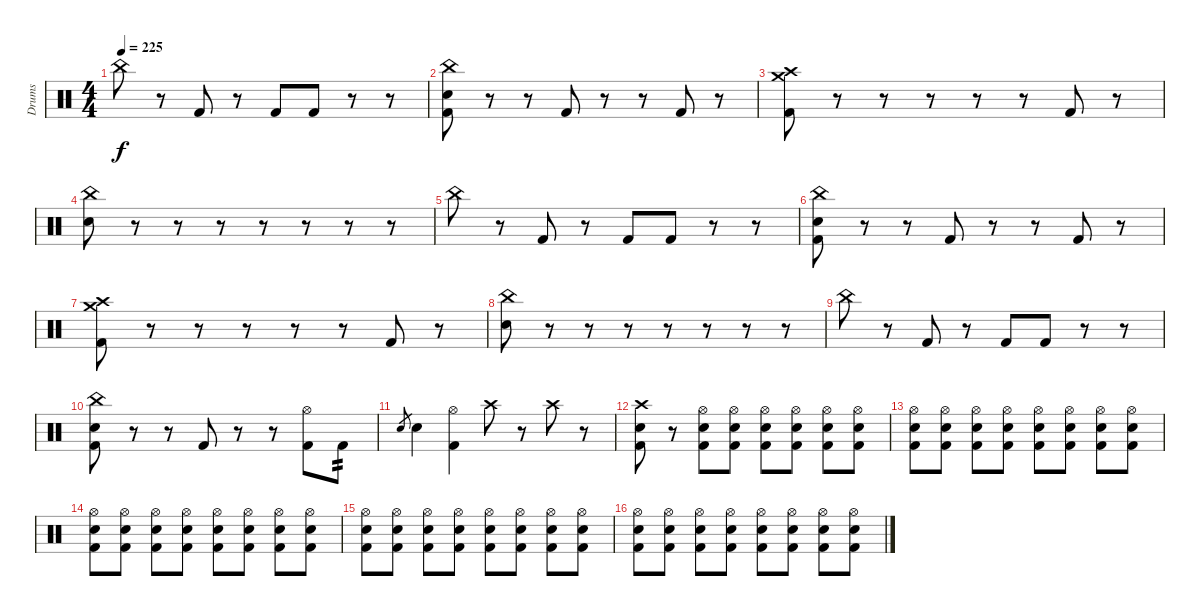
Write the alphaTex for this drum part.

\track ("Drums" "Drums") {instrument percussion}
\staff {score}
\articulation defaults
\ts (4 4)
\tempo 225
\clef neutral
\ks c "China (hit)".8{dy f}
r.8 "Kick (hit) 2".8 r.8 "Kick (hit) 2".8 "Kick (hit) 2".8 r.8 r.8 |
("China (hit)" "Electric Snare (hit)" "Kick (hit) 2").8 r.8 r.8 "Kick (hit) 2".8 r.8 r.8 "Kick (hit) 2".8 r.8 |
("Crash medium (hit)" "Crash high (hit)" "Kick (hit) 2").8 r.8 r.8 r.8 r.8 r.8 "Kick (hit) 2".8 r.8 |
("China (hit)" "Electric Snare (hit)").8 r.8 r.8 r.8 r.8 r.8 r.8 r.8 |
"China (hit)".8 r.8 "Kick (hit) 2".8 r.8 "Kick (hit) 2".8 "Kick (hit) 2".8 r.8 r.8 |
("China (hit)" "Electric Snare (hit)" "Kick (hit) 2").8 r.8 r.8 "Kick (hit) 2".8 r.8 r.8 "Kick (hit) 2".8 r.8 |
("Crash medium (hit)" "Crash high (hit)" "Kick (hit) 2").8 r.8 r.8 r.8 r.8 r.8 "Kick (hit) 2".8 r.8 |
("China (hit)" "Electric Snare (hit)").8 r.8 r.8 r.8 r.8 r.8 r.8 r.8 |
"China (hit)".8 r.8 "Kick (hit) 2".8 r.8 "Kick (hit) 2".8 "Kick (hit) 2".8 r.8 r.8 |
("China (hit)" "Electric Snare (hit)" "Kick (hit) 2").8 r.8 r.8 "Kick (hit) 2".8 r.8 r.8 ("Hi-Hat (open)" "Kick (hit) 2").8 "Kick (hit) 2".8{tp 2} |
"Electric Snare (hit)".8{gr} "Electric Snare (hit)".4 ("Hi-Hat (open)" "Kick (hit) 2").4 "Crash high (hit)".8 r.8{volume 0} "Crash high (hit)".8{volume 13} r.8{volume 0} |
("Crash high (hit)" "Electric Snare (hit)" "Kick (hit) 2").8{volume 13} r.8 ("Hi-Hat (open)" "Electric Snare (hit)" "Kick (hit) 2").8 ("Hi-Hat (open)" "Electric Snare (hit)" "Kick (hit) 2").8 ("Hi-Hat (open)" "Electric Snare (hit)" "Kick (hit) 2").8 ("Hi-Hat (open)" "Electric Snare (hit)" "Kick (hit) 2").8 ("Hi-Hat (open)" "Electric Snare (hit)" "Kick (hit) 2").8 ("Hi-Hat (open)" "Electric Snare (hit)" "Kick (hit) 2").8 |
("Hi-Hat (open)" "Electric Snare (hit)" "Kick (hit) 2").8 ("Hi-Hat (open)" "Electric Snare (hit)" "Kick (hit) 2").8 ("Hi-Hat (open)" "Electric Snare (hit)" "Kick (hit) 2").8 ("Hi-Hat (open)" "Electric Snare (hit)" "Kick (hit) 2").8 ("Hi-Hat (open)" "Electric Snare (hit)" "Kick (hit) 2").8 ("Hi-Hat (open)" "Electric Snare (hit)" "Kick (hit) 2").8 ("Hi-Hat (open)" "Electric Snare (hit)" "Kick (hit) 2").8 ("Hi-Hat (open)" "Electric Snare (hit)" "Kick (hit) 2").8 |
("Hi-Hat (open)" "Electric Snare (hit)" "Kick (hit) 2").8 ("Hi-Hat (open)" "Electric Snare (hit)" "Kick (hit) 2").8 ("Hi-Hat (open)" "Electric Snare (hit)" "Kick (hit) 2").8 ("Hi-Hat (open)" "Electric Snare (hit)" "Kick (hit) 2").8 ("Hi-Hat (open)" "Electric Snare (hit)" "Kick (hit) 2").8 ("Hi-Hat (open)" "Electric Snare (hit)" "Kick (hit) 2").8 ("Hi-Hat (open)" "Electric Snare (hit)" "Kick (hit) 2").8 ("Hi-Hat (open)" "Electric Snare (hit)" "Kick (hit) 2").8 |
("Hi-Hat (open)" "Electric Snare (hit)" "Kick (hit) 2").8 ("Hi-Hat (open)" "Electric Snare (hit)" "Kick (hit) 2").8 ("Hi-Hat (open)" "Electric Snare (hit)" "Kick (hit) 2").8 ("Hi-Hat (open)" "Electric Snare (hit)" "Kick (hit) 2").8 ("Hi-Hat (open)" "Electric Snare (hit)" "Kick (hit) 2").8 ("Hi-Hat (open)" "Electric Snare (hit)" "Kick (hit) 2").8 ("Hi-Hat (open)" "Electric Snare (hit)" "Kick (hit) 2").8 ("Hi-Hat (open)" "Electric Snare (hit)" "Kick (hit) 2").8 |
("Hi-Hat (open)" "Electric Snare (hit)" "Kick (hit) 2").8 ("Hi-Hat (open)" "Electric Snare (hit)" "Kick (hit) 2").8 ("Hi-Hat (open)" "Electric Snare (hit)" "Kick (hit) 2").8 ("Hi-Hat (open)" "Electric Snare (hit)" "Kick (hit) 2").8 ("Hi-Hat (open)" "Electric Snare (hit)" "Kick (hit) 2").8 ("Hi-Hat (open)" "Electric Snare (hit)" "Kick (hit) 2").8 ("Hi-Hat (open)" "Electric Snare (hit)" "Kick (hit) 2").8 ("Hi-Hat (open)" "Electric Snare (hit)" "Kick (hit) 2").8
